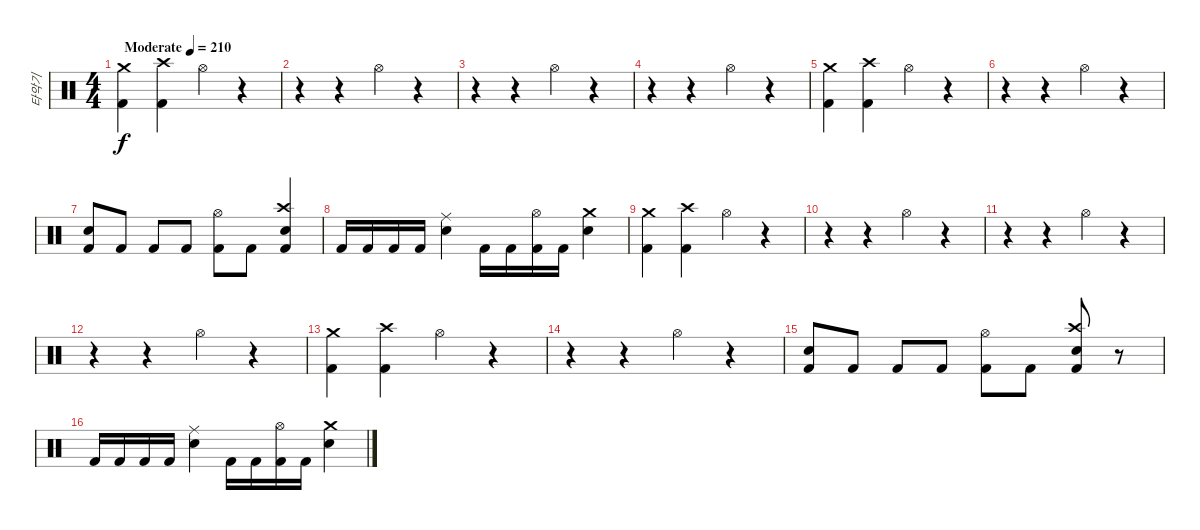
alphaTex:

\track ("타악기" "타악기") {instrument percussion}
\staff {score}
\articulation defaults
\ts (4 4)
\tempo (210 "Moderate")
\clef neutral
\ks c
("Crash medium (hit)" "Kick (hit) 2").4{dy f} ("Crash high (hit)" "Kick (hit) 2").4 "Hi-Hat (open)".4 r.4 |
r.4 r.4 "Hi-Hat (open)".4 r.4 |
r.4 r.4 "Hi-Hat (open)".4 r.4 |
r.4 r.4 "Hi-Hat (open)".4 r.4 |
("Crash medium (hit)" "Kick (hit) 2").4 ("Crash high (hit)" "Kick (hit) 2").4 "Hi-Hat (open)".4 r.4 |
r.4 r.4 "Hi-Hat (open)".4 r.4 |
("Snare (hit) 2" "Kick (hit) 2").8 "Kick (hit) 2".8 "Kick (hit) 2".8 "Kick (hit) 2".8 ("Hi-Hat (open)" "Kick (hit) 2").8 "Kick (hit) 2".8 ("Crash high (hit)" "Snare (hit) 2" "Kick (hit) 2").4 |
"Kick (hit) 2".16 "Kick (hit) 2".16 "Kick (hit) 2".16 "Kick (hit) 2".16 ("Ride (middle)" "Snare (hit) 2").4 "Kick (hit) 2".16 "Kick (hit) 2".16 ("Hi-Hat (open)" "Kick (hit) 2").16 "Kick (hit) 2".16 ("Crash medium (hit)" "Snare (hit) 2").4 |
("Crash medium (hit)" "Kick (hit) 2").4 ("Crash high (hit)" "Kick (hit) 2").4 "Hi-Hat (open)".4 r.4 |
r.4 r.4 "Hi-Hat (open)".4 r.4 |
r.4 r.4 "Hi-Hat (open)".4 r.4 |
r.4 r.4 "Hi-Hat (open)".4 r.4 |
("Crash medium (hit)" "Kick (hit) 2").4 ("Crash high (hit)" "Kick (hit) 2").4 "Hi-Hat (open)".4 r.4 |
r.4 r.4 "Hi-Hat (open)".4 r.4 |
("Snare (hit) 2" "Kick (hit) 2").8 "Kick (hit) 2".8 "Kick (hit) 2".8 "Kick (hit) 2".8 ("Hi-Hat (open)" "Kick (hit) 2").8 "Kick (hit) 2".8 ("Crash high (hit)" "Snare (hit) 2" "Kick (hit) 2").8 r.8 |
"Kick (hit) 2".16 "Kick (hit) 2".16 "Kick (hit) 2".16 "Kick (hit) 2".16 ("Ride (middle)" "Snare (hit) 2").4 "Kick (hit) 2".16 "Kick (hit) 2".16 ("Hi-Hat (open)" "Kick (hit) 2").16 "Kick (hit) 2".16 ("Crash medium (hit)" "Snare (hit) 2").4
